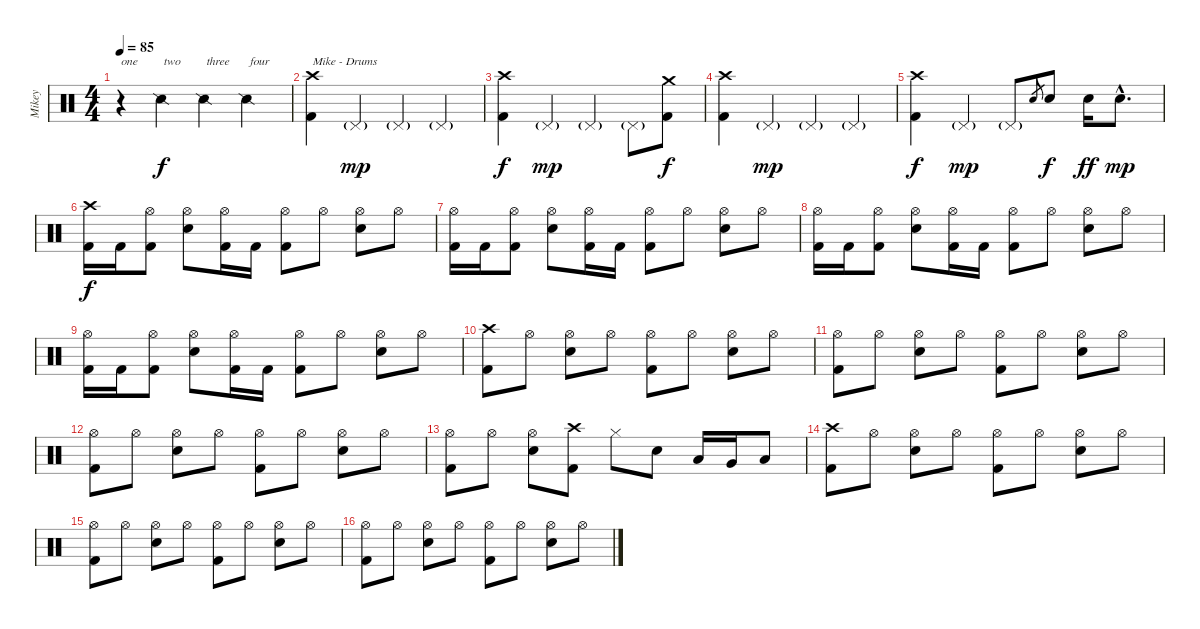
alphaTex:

\track ("Mikey" "Mikey") {instrument percussion}
\staff {score}
\articulation defaults
\ts (4 4)
\tempo 85
\clef neutral
\ks c
r.4{txt "one" dy f} "Snare (side stick) 2".4{txt "two"} "Snare (side stick) 2".4{txt "three"} "Snare (side stick) 2".4{txt "four"} |
("Crash high (hit)" "Kick (hit) 2").4{txt "Mike - Drums"} "Pedal Hi-Hat (hit)"{g}.4{dy mp} "Pedal Hi-Hat (hit)"{g}.4 "Pedal Hi-Hat (hit)"{g}.4 |
("Crash high (hit)" "Kick (hit) 2").4{dy f} "Pedal Hi-Hat (hit)"{g}.4{dy mp} "Pedal Hi-Hat (hit)"{g}.4 "Pedal Hi-Hat (hit)"{g}.8 ("Crash medium (hit)" "Kick (hit) 2").8{dy f} |
("Crash high (hit)" "Kick (hit) 2").4 "Pedal Hi-Hat (hit)"{g}.4{dy mp} "Pedal Hi-Hat (hit)"{g}.4 "Pedal Hi-Hat (hit)"{g}.4 |
("Crash high (hit)" "Kick (hit) 2").4{dy f} "Pedal Hi-Hat (hit)"{g}.4{dy mp} "Pedal Hi-Hat (hit)"{g}.8 "Snare (hit) 2".8{gr} "Snare (hit) 2".8{dy f} "Snare (hit) 2".16{dy ff} "Snare (hit) 2"{hac}.8{d dy mp} |
("Crash high (hit)" "Kick (hit) 2").16{dy f} "Kick (hit) 2".16 ("Hi-Hat (open)" "Kick (hit) 2").8 ("Hi-Hat (open)" "Snare (hit) 2").8 ("Hi-Hat (open)" "Kick (hit) 2").16 "Kick (hit) 2".16 ("Hi-Hat (open)" "Kick (hit) 2").8 "Hi-Hat (open)".8 ("Hi-Hat (open)" "Snare (hit) 2").8 "Hi-Hat (open)".8 |
("Hi-Hat (open)" "Kick (hit) 2").16 "Kick (hit) 2".16 ("Hi-Hat (open)" "Kick (hit) 2").8 ("Hi-Hat (open)" "Snare (hit) 2").8 ("Hi-Hat (open)" "Kick (hit) 2").16 "Kick (hit) 2".16 ("Hi-Hat (open)" "Kick (hit) 2").8 "Hi-Hat (open)".8 ("Hi-Hat (open)" "Snare (hit) 2").8 "Hi-Hat (open)".8 |
("Hi-Hat (open)" "Kick (hit) 2").16 "Kick (hit) 2".16 ("Hi-Hat (open)" "Kick (hit) 2").8 ("Hi-Hat (open)" "Snare (hit) 2").8 ("Hi-Hat (open)" "Kick (hit) 2").16 "Kick (hit) 2".16 ("Hi-Hat (open)" "Kick (hit) 2").8 "Hi-Hat (open)".8 ("Hi-Hat (open)" "Snare (hit) 2").8 "Hi-Hat (open)".8 |
("Hi-Hat (open)" "Kick (hit) 2").16 "Kick (hit) 2".16 ("Hi-Hat (open)" "Kick (hit) 2").8 ("Hi-Hat (open)" "Snare (hit) 2").8 ("Hi-Hat (open)" "Kick (hit) 2").16 "Kick (hit) 2".16 ("Hi-Hat (open)" "Kick (hit) 2").8 "Hi-Hat (open)".8 ("Hi-Hat (open)" "Snare (hit) 2").8 "Hi-Hat (open)".8 |
("Crash high (hit)" "Kick (hit) 2").8 "Hi-Hat (open)".8 ("Hi-Hat (open)" "Snare (hit) 2").8 "Hi-Hat (open)".8 ("Hi-Hat (open)" "Kick (hit) 2").8 "Hi-Hat (open)".8 ("Hi-Hat (open)" "Snare (hit) 2").8 "Hi-Hat (open)".8 |
("Hi-Hat (open)" "Kick (hit) 2").8 "Hi-Hat (open)".8 ("Hi-Hat (open)" "Snare (hit) 2").8 "Hi-Hat (open)".8 ("Hi-Hat (open)" "Kick (hit) 2").8 "Hi-Hat (open)".8 ("Hi-Hat (open)" "Snare (hit) 2").8 "Hi-Hat (open)".8 |
("Hi-Hat (open)" "Kick (hit) 2").8 "Hi-Hat (open)".8 ("Hi-Hat (open)" "Snare (hit) 2").8 "Hi-Hat (open)".8 ("Hi-Hat (open)" "Kick (hit) 2").8 "Hi-Hat (open)".8 ("Hi-Hat (open)" "Snare (hit) 2").8 "Hi-Hat (open)".8 |
("Hi-Hat (open)" "Kick (hit) 2").8 "Hi-Hat (open)".8 ("Hi-Hat (open)" "Snare (hit) 2").8 ("Crash high (hit)" "Kick (hit) 2").8 "Hi-Hat (closed)".8 "Snare (hit) 2".8 "Low Tom (hit)".16 "Very Low Tom (hit)".16 "Low Floor Tom (hit)".8 |
("Crash high (hit)" "Kick (hit) 2").8 "Hi-Hat (open)".8 ("Hi-Hat (open)" "Snare (hit) 2").8 "Hi-Hat (open)".8 ("Hi-Hat (open)" "Kick (hit) 2").8 "Hi-Hat (open)".8 ("Hi-Hat (open)" "Snare (hit) 2").8 "Hi-Hat (open)".8 |
("Hi-Hat (open)" "Kick (hit) 2").8 "Hi-Hat (open)".8 ("Hi-Hat (open)" "Snare (hit) 2").8 "Hi-Hat (open)".8 ("Hi-Hat (open)" "Kick (hit) 2").8 "Hi-Hat (open)".8 ("Hi-Hat (open)" "Snare (hit) 2").8 "Hi-Hat (open)".8 |
("Hi-Hat (open)" "Kick (hit) 2").8 "Hi-Hat (open)".8 ("Hi-Hat (open)" "Snare (hit) 2").8 "Hi-Hat (open)".8 ("Hi-Hat (open)" "Kick (hit) 2").8 "Hi-Hat (open)".8 ("Hi-Hat (open)" "Snare (hit) 2").8 "Hi-Hat (open)".8
